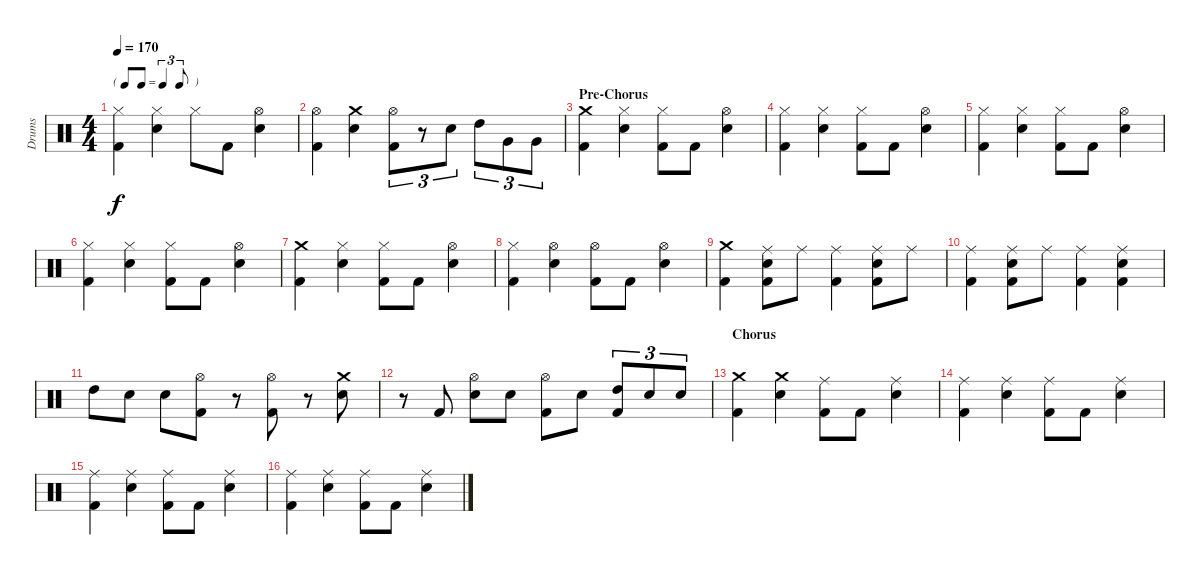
\track ("Drums" "Drums") {instrument percussion}
\staff {score}
\articulation defaults
\ts (4 4)
\tf triplet8th
\tempo 170
\clef neutral
\ks c
("Hi-Hat (closed)" "Kick (hit) 2").4{dy f} ("Hi-Hat (closed)" "Snare (hit) 2").4 "Hi-Hat (closed)".8 "Kick (hit) 2".8 ("Hi-Hat (open)" "Snare (hit) 2").4 |
("Hi-Hat (open)" "Kick (hit) 2").4 ("Crash medium (hit)" "Snare (hit) 2").4 ("Hi-Hat (open)" "Kick (hit) 2").8{tu (3 2)} r.8{tu (3 2)} "Snare (hit) 2".8{tu (3 2)} "High Tom (hit)".8{tu (3 2)} "Very Low Tom (hit)".8{tu (3 2)} "Very Low Tom (hit)".8{tu (3 2)} |
\section ("" "Pre-Chorus")
("Crash medium (hit)" "Kick (hit) 2").4 ("Hi-Hat (closed)" "Snare (hit) 2").4 ("Hi-Hat (closed)" "Kick (hit) 2").8 "Kick (hit) 2".8 ("Hi-Hat (open)" "Snare (hit) 2").4 |
("Hi-Hat (closed)" "Kick (hit) 2").4 ("Hi-Hat (closed)" "Snare (hit) 2").4 ("Hi-Hat (closed)" "Kick (hit) 2").8 "Kick (hit) 2".8 ("Hi-Hat (open)" "Snare (hit) 2").4 |
("Hi-Hat (closed)" "Kick (hit) 2").4 ("Hi-Hat (closed)" "Snare (hit) 2").4 ("Hi-Hat (closed)" "Kick (hit) 2").8 "Kick (hit) 2".8 ("Hi-Hat (open)" "Snare (hit) 2").4 |
("Hi-Hat (closed)" "Kick (hit) 2").4 ("Hi-Hat (closed)" "Snare (hit) 2").4 ("Hi-Hat (closed)" "Kick (hit) 2").8 "Kick (hit) 2".8 ("Hi-Hat (open)" "Snare (hit) 2").4 |
("Crash medium (hit)" "Kick (hit) 2").4 ("Hi-Hat (closed)" "Snare (hit) 2").4 ("Hi-Hat (closed)" "Kick (hit) 2").8 "Kick (hit) 2".8 ("Hi-Hat (open)" "Snare (hit) 2").4 |
("Hi-Hat (closed)" "Kick (hit) 2").4 ("Hi-Hat (open)" "Snare (hit) 2").4 ("Hi-Hat (open)" "Kick (hit) 2").8 "Kick (hit) 2".8 ("Hi-Hat (open)" "Snare (hit) 2").4 |
("Crash medium (hit)" "Kick (hit) 2").4 ("Ride (middle)" "Snare (hit) 2" "Kick (hit) 2").8 "Ride (middle)".8 ("Ride (middle)" "Kick (hit) 2").4 ("Ride (middle)" "Snare (hit) 2" "Kick (hit) 2").8 "Ride (middle)".8 |
("Ride (middle)" "Kick (hit) 2").4 ("Ride (middle)" "Snare (hit) 2" "Kick (hit) 2").8 "Ride (middle)".8 ("Ride (middle)" "Kick (hit) 2").4 ("Ride (middle)" "Snare (hit) 2" "Kick (hit) 2").4 |
"High Tom (hit)".8 "Snare (hit) 2".8 "Snare (hit) 2".8 ("Hi-Hat (open)" "Kick (hit) 2").8 r.8 ("Hi-Hat (open)" "Kick (hit) 2").8 r.8 ("Crash medium (hit)" "Snare (hit) 2").8 |
r.8 "Kick (hit) 2".8 ("Hi-Hat (open)" "Snare (hit) 2").8 "Snare (hit) 2".8 ("Hi-Hat (open)" "Kick (hit) 2").8 "Snare (hit) 2".8 ("High Tom (hit)" "Kick (hit) 2").8{tu (3 2)} "Snare (hit) 2".8{tu (3 2)} "Snare (hit) 2".8{tu (3 2)} |
\section ("" "Chorus")
("Crash medium (hit)" "Kick (hit) 2").4 ("Crash medium (hit)" "Snare (hit) 2").4 ("Ride (middle)" "Kick (hit) 2").8 "Kick (hit) 2".8 ("Ride (middle)" "Snare (hit) 2").4 |
("Ride (middle)" "Kick (hit) 2").4 ("Ride (middle)" "Snare (hit) 2").4 ("Ride (middle)" "Kick (hit) 2").8 "Kick (hit) 2".8 ("Ride (middle)" "Snare (hit) 2").4 |
("Ride (middle)" "Kick (hit) 2").4 ("Ride (middle)" "Snare (hit) 2").4 ("Ride (middle)" "Kick (hit) 2").8 "Kick (hit) 2".8 ("Ride (middle)" "Snare (hit) 2").4 |
("Ride (middle)" "Kick (hit) 2").4 ("Ride (middle)" "Snare (hit) 2").4 ("Ride (middle)" "Kick (hit) 2").8 "Kick (hit) 2".8 ("Ride (middle)" "Snare (hit) 2").4
